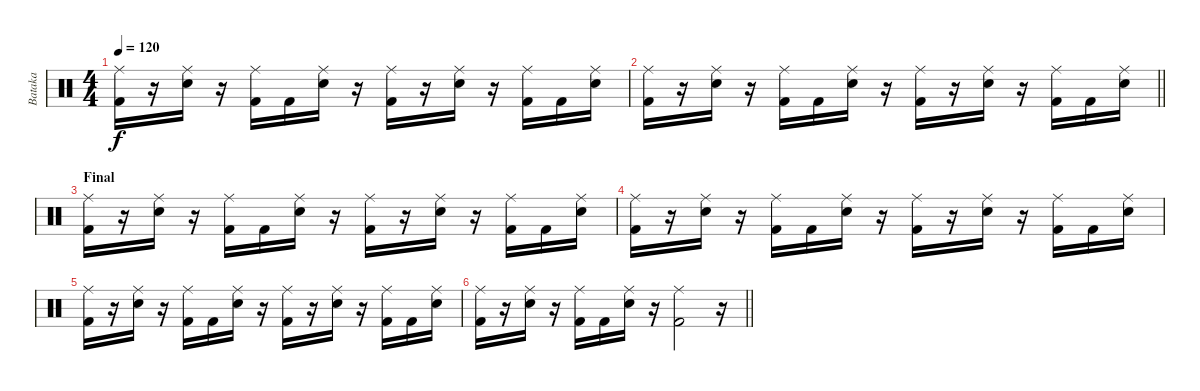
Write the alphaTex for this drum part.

\track ("Bataka" "Bataka") {instrument percussion}
\staff {score}
\articulation defaults
\ts (4 4)
\tempo 120
\clef neutral
\ks c
("Ride (middle)" "Kick (hit) 2").16{dy f} r.16 ("Ride (middle)" "Snare (hit) 2").16 r.16 ("Ride (middle)" "Kick (hit) 2").16 "Kick (hit) 2".16 ("Ride (middle)" "Snare (hit) 2").16 r.16 ("Ride (middle)" "Kick (hit) 2").16 r.16 ("Ride (middle)" "Snare (hit) 2").16 r.16 ("Ride (middle)" "Kick (hit) 2").16 "Kick (hit) 2".16 ("Ride (middle)" "Snare (hit) 2").16 |
\barLineRight lightlight
("Ride (middle)" "Kick (hit) 2").16 r.16 ("Ride (middle)" "Snare (hit) 2").16 r.16 ("Ride (middle)" "Kick (hit) 2").16 "Kick (hit) 2".16 ("Ride (middle)" "Snare (hit) 2").16 r.16 ("Ride (middle)" "Kick (hit) 2").16 r.16 ("Ride (middle)" "Snare (hit) 2").16 r.16 ("Ride (middle)" "Kick (hit) 2").16 "Kick (hit) 2".16 ("Ride (middle)" "Snare (hit) 2").16 |
\section ("" "Final")
("Ride (middle)" "Kick (hit) 2").16 r.16 ("Ride (middle)" "Snare (hit) 2").16 r.16 ("Ride (middle)" "Kick (hit) 2").16 "Kick (hit) 2".16 ("Ride (middle)" "Snare (hit) 2").16 r.16 ("Ride (middle)" "Kick (hit) 2").16 r.16 ("Ride (middle)" "Snare (hit) 2").16 r.16 ("Ride (middle)" "Kick (hit) 2").16 "Kick (hit) 2".16 ("Ride (middle)" "Snare (hit) 2").16 |
("Ride (middle)" "Kick (hit) 2").16 r.16 ("Ride (middle)" "Snare (hit) 2").16 r.16 ("Ride (middle)" "Kick (hit) 2").16 "Kick (hit) 2".16 ("Ride (middle)" "Snare (hit) 2").16 r.16 ("Ride (middle)" "Kick (hit) 2").16 r.16 ("Ride (middle)" "Snare (hit) 2").16 r.16 ("Ride (middle)" "Kick (hit) 2").16 "Kick (hit) 2".16 ("Ride (middle)" "Snare (hit) 2").16 |
("Ride (middle)" "Kick (hit) 2").16 r.16 ("Ride (middle)" "Snare (hit) 2").16 r.16 ("Ride (middle)" "Kick (hit) 2").16 "Kick (hit) 2".16 ("Ride (middle)" "Snare (hit) 2").16 r.16 ("Ride (middle)" "Kick (hit) 2").16 r.16 ("Ride (middle)" "Snare (hit) 2").16 r.16 ("Ride (middle)" "Kick (hit) 2").16 "Kick (hit) 2".16 ("Ride (middle)" "Snare (hit) 2").16 |
\barLineRight lightlight
("Ride (middle)" "Kick (hit) 2").16 r.16 ("Ride (middle)" "Snare (hit) 2").16 r.16 ("Ride (middle)" "Kick (hit) 2").16 "Kick (hit) 2".16 ("Ride (middle)" "Snare (hit) 2").16 r.16 ("Ride (middle)" "Kick (hit) 2").2 r.16
